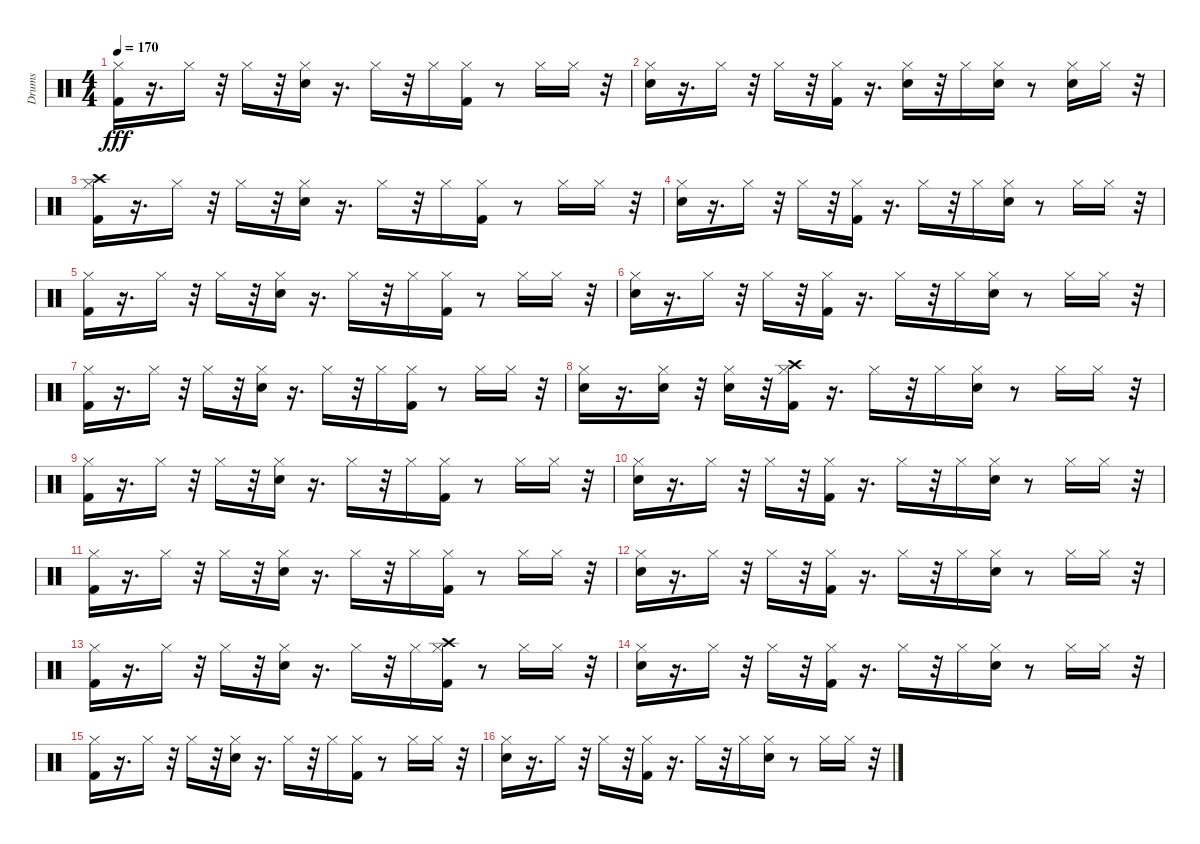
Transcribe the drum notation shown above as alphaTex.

\track ("Drums" "Drums") {instrument percussion}
\staff {score}
\articulation defaults
\ts (4 4)
\tempo 170
\clef neutral
\ks c
("Kick (hit) 2" "Hi-Hat (closed)").16{dy fff} r.16{d} "Hi-Hat (closed)".16 r.32 "Hi-Hat (closed)".16 r.32 ("Snare (hit) 2" "Hi-Hat (closed)").16 r.16{d} "Hi-Hat (closed)".16 r.32 "Hi-Hat (closed)".16 ("Kick (hit) 2" "Hi-Hat (closed)").16 r.8 "Hi-Hat (closed)".16 "Hi-Hat (closed)".16 r.32 |
("Snare (hit) 2" "Hi-Hat (closed)").16 r.16{d} "Hi-Hat (closed)".16 r.32 "Hi-Hat (closed)".16 r.32 ("Kick (hit) 2" "Hi-Hat (closed)").16 r.16{d} ("Hi-Hat (closed)" "Snare (hit) 2").16 r.32 "Hi-Hat (closed)".16 ("Snare (hit) 2" "Hi-Hat (closed)").16 r.8 ("Hi-Hat (closed)" "Snare (hit) 2").16 "Hi-Hat (closed)".16 r.32 |
("Kick (hit) 2" "Hi-Hat (closed)" "Crash high (hit)").16 r.16{d} "Hi-Hat (closed)".16 r.32 "Hi-Hat (closed)".16 r.32 ("Snare (hit) 2" "Hi-Hat (closed)").16 r.16{d} "Hi-Hat (closed)".16 r.32 "Hi-Hat (closed)".16 ("Kick (hit) 2" "Hi-Hat (closed)").16 r.8 "Hi-Hat (closed)".16 "Hi-Hat (closed)".16 r.32 |
("Snare (hit) 2" "Hi-Hat (closed)").16 r.16{d} "Hi-Hat (closed)".16 r.32 "Hi-Hat (closed)".16 r.32 ("Kick (hit) 2" "Hi-Hat (closed)").16 r.16{d} "Hi-Hat (closed)".16 r.32 "Hi-Hat (closed)".16 ("Snare (hit) 2" "Hi-Hat (closed)").16 r.8 "Hi-Hat (closed)".16 "Hi-Hat (closed)".16 r.32 |
("Kick (hit) 2" "Hi-Hat (closed)").16 r.16{d} "Hi-Hat (closed)".16 r.32 "Hi-Hat (closed)".16 r.32 ("Snare (hit) 2" "Hi-Hat (closed)").16 r.16{d} "Hi-Hat (closed)".16 r.32 "Hi-Hat (closed)".16 ("Kick (hit) 2" "Hi-Hat (closed)").16 r.8 "Hi-Hat (closed)".16 "Hi-Hat (closed)".16 r.32 |
("Snare (hit) 2" "Hi-Hat (closed)").16 r.16{d} "Hi-Hat (closed)".16 r.32 "Hi-Hat (closed)".16 r.32 ("Kick (hit) 2" "Hi-Hat (closed)").16 r.16{d} "Hi-Hat (closed)".16 r.32 "Hi-Hat (closed)".16 ("Snare (hit) 2" "Hi-Hat (closed)").16 r.8 "Hi-Hat (closed)".16 "Hi-Hat (closed)".16 r.32 |
("Kick (hit) 2" "Hi-Hat (closed)").16 r.16{d} "Hi-Hat (closed)".16 r.32 "Hi-Hat (closed)".16 r.32 ("Snare (hit) 2" "Hi-Hat (closed)").16 r.16{d} "Hi-Hat (closed)".16 r.32 "Hi-Hat (closed)".16 ("Kick (hit) 2" "Hi-Hat (closed)").16 r.8 "Hi-Hat (closed)".16 "Hi-Hat (closed)".16 r.32 |
("Snare (hit) 2" "Hi-Hat (closed)").16 r.16{d} ("Hi-Hat (closed)" "Snare (hit) 2").16 r.32 ("Hi-Hat (closed)" "Snare (hit) 2").16 r.32 ("Kick (hit) 2" "Hi-Hat (closed)" "Crash high (hit)").16 r.16{d} "Hi-Hat (closed)".16 r.32 "Hi-Hat (closed)".16 ("Snare (hit) 2" "Hi-Hat (closed)").16 r.8 "Hi-Hat (closed)".16 "Hi-Hat (closed)".16 r.32 |
("Kick (hit) 2" "Hi-Hat (closed)").16 r.16{d} "Hi-Hat (closed)".16 r.32 "Hi-Hat (closed)".16 r.32 ("Snare (hit) 2" "Hi-Hat (closed)").16 r.16{d} "Hi-Hat (closed)".16 r.32 "Hi-Hat (closed)".16 ("Kick (hit) 2" "Hi-Hat (closed)").16 r.8 "Hi-Hat (closed)".16 "Hi-Hat (closed)".16 r.32 |
("Snare (hit) 2" "Hi-Hat (closed)").16 r.16{d} "Hi-Hat (closed)".16 r.32 "Hi-Hat (closed)".16 r.32 ("Kick (hit) 2" "Hi-Hat (closed)").16 r.16{d} "Hi-Hat (closed)".16 r.32 "Hi-Hat (closed)".16 ("Snare (hit) 2" "Hi-Hat (closed)").16 r.8 "Hi-Hat (closed)".16 "Hi-Hat (closed)".16 r.32 |
("Kick (hit) 2" "Hi-Hat (closed)").16 r.16{d} "Hi-Hat (closed)".16 r.32 "Hi-Hat (closed)".16 r.32 ("Snare (hit) 2" "Hi-Hat (closed)").16 r.16{d} "Hi-Hat (closed)".16 r.32 "Hi-Hat (closed)".16 ("Kick (hit) 2" "Hi-Hat (closed)").16 r.8 "Hi-Hat (closed)".16 "Hi-Hat (closed)".16 r.32 |
("Snare (hit) 2" "Hi-Hat (closed)").16 r.16{d} "Hi-Hat (closed)".16 r.32 "Hi-Hat (closed)".16 r.32 ("Kick (hit) 2" "Hi-Hat (closed)").16 r.16{d} "Hi-Hat (closed)".16 r.32 "Hi-Hat (closed)".16 ("Snare (hit) 2" "Hi-Hat (closed)").16 r.8 "Hi-Hat (closed)".16 "Hi-Hat (closed)".16 r.32 |
("Kick (hit) 2" "Hi-Hat (closed)").16 r.16{d} "Hi-Hat (closed)".16 r.32 "Hi-Hat (closed)".16 r.32 ("Snare (hit) 2" "Hi-Hat (closed)").16 r.16{d} "Hi-Hat (closed)".16 r.32 "Hi-Hat (closed)".16 ("Kick (hit) 2" "Hi-Hat (closed)" "Crash high (hit)").16 r.8 "Hi-Hat (closed)".16 "Hi-Hat (closed)".16 r.32 |
("Snare (hit) 2" "Hi-Hat (closed)").16 r.16{d} "Hi-Hat (closed)".16 r.32 "Hi-Hat (closed)".16 r.32 ("Kick (hit) 2" "Hi-Hat (closed)").16 r.16{d} "Hi-Hat (closed)".16 r.32 "Hi-Hat (closed)".16 ("Snare (hit) 2" "Hi-Hat (closed)").16 r.8 "Hi-Hat (closed)".16 "Hi-Hat (closed)".16 r.32 |
("Kick (hit) 2" "Hi-Hat (closed)").16 r.16{d} "Hi-Hat (closed)".16 r.32 "Hi-Hat (closed)".16 r.32 ("Snare (hit) 2" "Hi-Hat (closed)").16 r.16{d} "Hi-Hat (closed)".16 r.32 "Hi-Hat (closed)".16 ("Kick (hit) 2" "Hi-Hat (closed)").16 r.8 "Hi-Hat (closed)".16 "Hi-Hat (closed)".16 r.32 |
("Snare (hit) 2" "Hi-Hat (closed)").16 r.16{d} "Hi-Hat (closed)".16 r.32 "Hi-Hat (closed)".16 r.32 ("Kick (hit) 2" "Hi-Hat (closed)").16 r.16{d} "Hi-Hat (closed)".16 r.32 "Hi-Hat (closed)".16 ("Snare (hit) 2" "Hi-Hat (closed)").16 r.8 "Hi-Hat (closed)".16 "Hi-Hat (closed)".16 r.32
